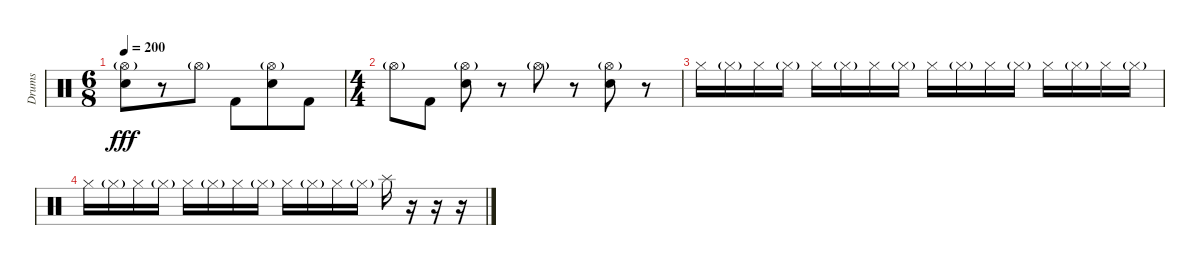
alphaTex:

\track ("Drums" "Drums") {instrument percussion}
\staff {score}
\articulation defaults
\ts (6 8)
\tempo 200
\clef neutral
\ks c
("Hi-Hat (open)"{g} "Electric Snare (hit)").8{dy fff} r.8 "Hi-Hat (open)"{g}.8 "Kick (hit) 2".8 ("Hi-Hat (open)"{g} "Electric Snare (hit)").8 "Kick (hit) 2".8 |
\ts (4 4)
"Hi-Hat (open)"{g}.8 "Kick (hit) 2".8 ("Hi-Hat (open)"{g} "Electric Snare (hit)").8 r.8 "Hi-Hat (open)"{g}.8 r.8 ("Hi-Hat (open)"{g} "Electric Snare (hit)").8 r.8 |
"Hi-Hat (closed)".16 "Hi-Hat (closed)"{g}.16 "Hi-Hat (closed)".16 "Hi-Hat (closed)"{g}.16 "Hi-Hat (closed)".16 "Hi-Hat (closed)"{g}.16 "Hi-Hat (closed)".16 "Hi-Hat (closed)"{g}.16 "Hi-Hat (closed)".16 "Hi-Hat (closed)"{g}.16 "Hi-Hat (closed)".16 "Hi-Hat (closed)"{g}.16 "Hi-Hat (closed)".16 "Hi-Hat (closed)"{g}.16 "Hi-Hat (closed)".16 "Hi-Hat (closed)"{g}.16 |
"Hi-Hat (closed)".16 "Hi-Hat (closed)"{g}.16 "Hi-Hat (closed)".16 "Hi-Hat (closed)"{g}.16 "Hi-Hat (closed)".16 "Hi-Hat (closed)"{g}.16 "Hi-Hat (closed)".16 "Hi-Hat (closed)"{g}.16 "Hi-Hat (closed)".16 "Hi-Hat (closed)"{g}.16 "Hi-Hat (closed)".16 "Hi-Hat (closed)"{g}.16 "Splash (hit)".16 r.16 r.16 r.16
